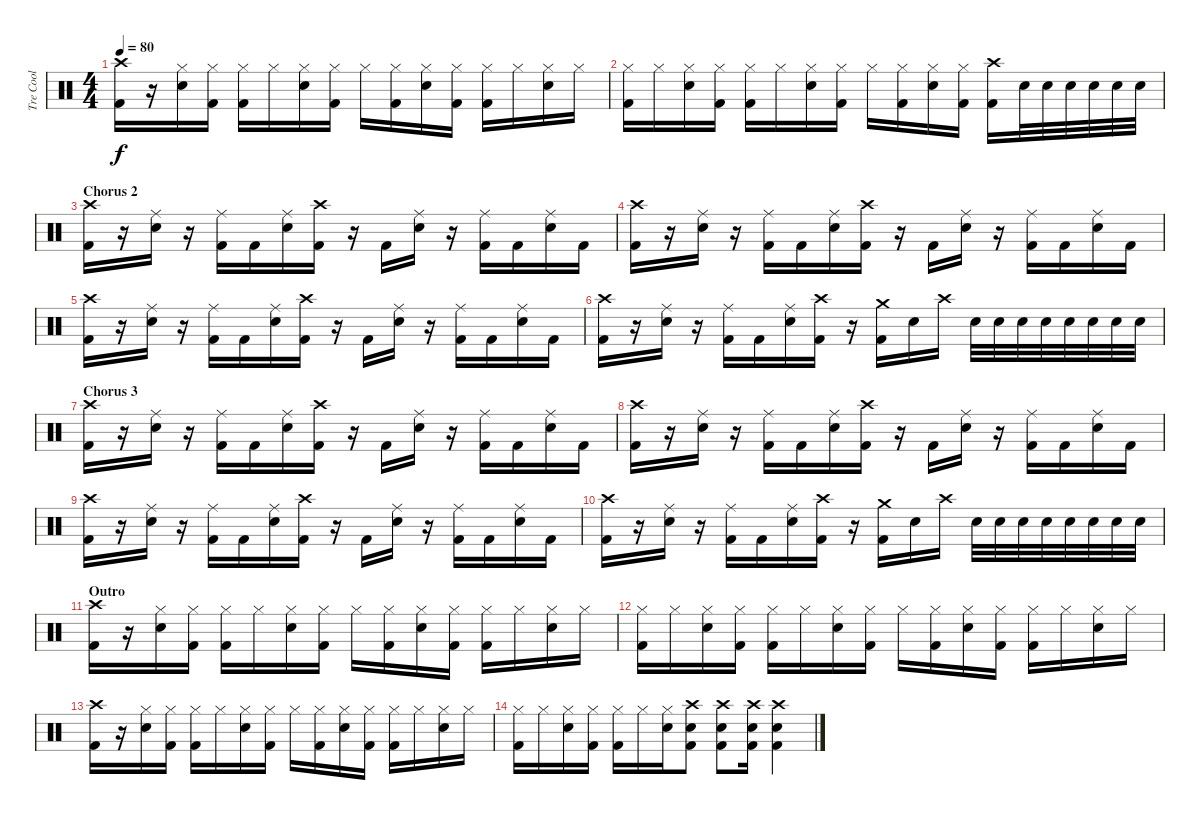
\track ("Tre Cool" "Tre Cool") {instrument percussion}
\staff {score}
\articulation defaults
\ts (4 4)
\tempo 80
\clef neutral
\ks c
("Crash high (hit)" "Kick (hit) 2").16{dy f} r.16 ("Hi-Hat (closed)" "Electric Snare (hit)").16 ("Hi-Hat (closed)" "Kick (hit) 2").16 ("Hi-Hat (closed)" "Kick (hit) 2").16 "Hi-Hat (closed)".16 ("Hi-Hat (closed)" "Electric Snare (hit)").16 ("Hi-Hat (closed)" "Kick (hit) 2").16 "Hi-Hat (closed)".16 ("Hi-Hat (closed)" "Kick (hit) 2").16 ("Hi-Hat (closed)" "Electric Snare (hit)").16 ("Hi-Hat (closed)" "Kick (hit) 2").16 ("Hi-Hat (closed)" "Kick (hit) 2").16 "Hi-Hat (closed)".16 ("Hi-Hat (closed)" "Electric Snare (hit)").16 "Hi-Hat (closed)".16 |
("Hi-Hat (closed)" "Kick (hit) 2").16 "Hi-Hat (closed)".16 ("Hi-Hat (closed)" "Electric Snare (hit)").16 ("Hi-Hat (closed)" "Kick (hit) 2").16 ("Hi-Hat (closed)" "Kick (hit) 2").16 "Hi-Hat (closed)".16 ("Hi-Hat (closed)" "Electric Snare (hit)").16 ("Hi-Hat (closed)" "Kick (hit) 2").16 "Hi-Hat (closed)".16 ("Hi-Hat (closed)" "Kick (hit) 2").16 ("Hi-Hat (closed)" "Electric Snare (hit)").16 ("Hi-Hat (closed)" "Kick (hit) 2").16 ("Crash high (hit)" "Kick (hit) 2").16 "Electric Snare (hit)".32 "Electric Snare (hit)".32 "Electric Snare (hit)".32 "Electric Snare (hit)".32 "Electric Snare (hit)".32 "Electric Snare (hit)".32 |
\section ("" "Chorus 2")
("Crash high (hit)" "Kick (hit) 2").16 r.16 ("Ride (middle)" "Electric Snare (hit)").16 r.16 ("Ride (middle)" "Kick (hit) 2").16 "Kick (hit) 2".16 ("Ride (middle)" "Electric Snare (hit)").16 ("Crash high (hit)" "Kick (hit) 2").16 r.16 "Kick (hit) 2".16 ("Ride (middle)" "Electric Snare (hit)").16 r.16 ("Ride (middle)" "Kick (hit) 2").16 "Kick (hit) 2".16 ("Ride (middle)" "Electric Snare (hit)").16 "Kick (hit) 2".16 |
("Crash high (hit)" "Kick (hit) 2").16 r.16 ("Ride (middle)" "Electric Snare (hit)").16 r.16 ("Ride (middle)" "Kick (hit) 2").16 "Kick (hit) 2".16 ("Ride (middle)" "Electric Snare (hit)").16 ("Crash high (hit)" "Kick (hit) 2").16 r.16 "Kick (hit) 2".16 ("Ride (middle)" "Electric Snare (hit)").16 r.16 ("Ride (middle)" "Kick (hit) 2").16 "Kick (hit) 2".16 ("Ride (middle)" "Electric Snare (hit)").16 "Kick (hit) 2".16 |
("Crash high (hit)" "Kick (hit) 2").16 r.16 ("Ride (middle)" "Electric Snare (hit)").16 r.16 ("Ride (middle)" "Kick (hit) 2").16 "Kick (hit) 2".16 ("Ride (middle)" "Electric Snare (hit)").16 ("Crash high (hit)" "Kick (hit) 2").16 r.16 "Kick (hit) 2".16 ("Ride (middle)" "Electric Snare (hit)").16 r.16 ("Ride (middle)" "Kick (hit) 2").16 "Kick (hit) 2".16 ("Ride (middle)" "Electric Snare (hit)").16 "Kick (hit) 2".16 |
("Crash high (hit)" "Kick (hit) 2").16 r.16 ("Ride (middle)" "Electric Snare (hit)").16 r.16 ("Ride (middle)" "Kick (hit) 2").16 "Kick (hit) 2".16 ("Ride (middle)" "Electric Snare (hit)").16 ("Crash high (hit)" "Kick (hit) 2").16 r.16 ("Crash medium (hit)" "Kick (hit) 2").16 "Electric Snare (hit)".16 "Crash high (hit)".16 "Electric Snare (hit)".32 "Electric Snare (hit)".32 "Electric Snare (hit)".32 "Electric Snare (hit)".32 "Electric Snare (hit)".32 "Electric Snare (hit)".32 "Electric Snare (hit)".32 "Electric Snare (hit)".32 |
\section ("" "Chorus 3")
("Crash high (hit)" "Kick (hit) 2").16 r.16 ("Ride (middle)" "Electric Snare (hit)").16 r.16 ("Ride (middle)" "Kick (hit) 2").16 "Kick (hit) 2".16 ("Ride (middle)" "Electric Snare (hit)").16 ("Crash high (hit)" "Kick (hit) 2").16 r.16 "Kick (hit) 2".16 ("Ride (middle)" "Electric Snare (hit)").16 r.16 ("Ride (middle)" "Kick (hit) 2").16 "Kick (hit) 2".16 ("Ride (middle)" "Electric Snare (hit)").16 "Kick (hit) 2".16 |
("Crash high (hit)" "Kick (hit) 2").16 r.16 ("Ride (middle)" "Electric Snare (hit)").16 r.16 ("Ride (middle)" "Kick (hit) 2").16 "Kick (hit) 2".16 ("Ride (middle)" "Electric Snare (hit)").16 ("Crash high (hit)" "Kick (hit) 2").16 r.16 "Kick (hit) 2".16 ("Ride (middle)" "Electric Snare (hit)").16 r.16 ("Ride (middle)" "Kick (hit) 2").16 "Kick (hit) 2".16 ("Ride (middle)" "Electric Snare (hit)").16 "Kick (hit) 2".16 |
("Crash high (hit)" "Kick (hit) 2").16 r.16 ("Ride (middle)" "Electric Snare (hit)").16 r.16 ("Ride (middle)" "Kick (hit) 2").16 "Kick (hit) 2".16 ("Ride (middle)" "Electric Snare (hit)").16 ("Crash high (hit)" "Kick (hit) 2").16 r.16 "Kick (hit) 2".16 ("Ride (middle)" "Electric Snare (hit)").16 r.16 ("Ride (middle)" "Kick (hit) 2").16 "Kick (hit) 2".16 ("Ride (middle)" "Electric Snare (hit)").16 "Kick (hit) 2".16 |
("Crash high (hit)" "Kick (hit) 2").16 r.16 ("Ride (middle)" "Electric Snare (hit)").16 r.16 ("Ride (middle)" "Kick (hit) 2").16 "Kick (hit) 2".16 ("Ride (middle)" "Electric Snare (hit)").16 ("Crash high (hit)" "Kick (hit) 2").16 r.16 ("Crash medium (hit)" "Kick (hit) 2").16 "Electric Snare (hit)".16 "Crash high (hit)".16 "Electric Snare (hit)".32 "Electric Snare (hit)".32 "Electric Snare (hit)".32 "Electric Snare (hit)".32 "Electric Snare (hit)".32 "Electric Snare (hit)".32 "Electric Snare (hit)".32 "Electric Snare (hit)".32 |
\section ("" "Outro")
("Crash high (hit)" "Kick (hit) 2").16 r.16 ("Hi-Hat (closed)" "Electric Snare (hit)").16 ("Hi-Hat (closed)" "Kick (hit) 2").16 ("Hi-Hat (closed)" "Kick (hit) 2").16 "Hi-Hat (closed)".16 ("Hi-Hat (closed)" "Electric Snare (hit)").16 ("Hi-Hat (closed)" "Kick (hit) 2").16 "Hi-Hat (closed)".16 ("Hi-Hat (closed)" "Kick (hit) 2").16 ("Hi-Hat (closed)" "Electric Snare (hit)").16 ("Hi-Hat (closed)" "Kick (hit) 2").16 ("Hi-Hat (closed)" "Kick (hit) 2").16 "Hi-Hat (closed)".16 ("Hi-Hat (closed)" "Electric Snare (hit)").16 "Hi-Hat (closed)".16 |
("Hi-Hat (closed)" "Kick (hit) 2").16 "Hi-Hat (closed)".16 ("Hi-Hat (closed)" "Electric Snare (hit)").16 ("Hi-Hat (closed)" "Kick (hit) 2").16 ("Hi-Hat (closed)" "Kick (hit) 2").16 "Hi-Hat (closed)".16 ("Hi-Hat (closed)" "Electric Snare (hit)").16 ("Hi-Hat (closed)" "Kick (hit) 2").16 "Hi-Hat (closed)".16 ("Hi-Hat (closed)" "Kick (hit) 2").16 ("Hi-Hat (closed)" "Electric Snare (hit)").16 ("Hi-Hat (closed)" "Kick (hit) 2").16 ("Hi-Hat (closed)" "Kick (hit) 2").16 "Hi-Hat (closed)".16 ("Hi-Hat (closed)" "Electric Snare (hit)").16 "Hi-Hat (closed)".16 |
("Crash high (hit)" "Kick (hit) 2").16 r.16 ("Hi-Hat (closed)" "Electric Snare (hit)").16 ("Hi-Hat (closed)" "Kick (hit) 2").16 ("Hi-Hat (closed)" "Kick (hit) 2").16 "Hi-Hat (closed)".16 ("Hi-Hat (closed)" "Electric Snare (hit)").16 ("Hi-Hat (closed)" "Kick (hit) 2").16 "Hi-Hat (closed)".16 ("Hi-Hat (closed)" "Kick (hit) 2").16 ("Hi-Hat (closed)" "Electric Snare (hit)").16 ("Hi-Hat (closed)" "Kick (hit) 2").16 ("Hi-Hat (closed)" "Kick (hit) 2").16 "Hi-Hat (closed)".16 ("Hi-Hat (closed)" "Electric Snare (hit)").16 "Hi-Hat (closed)".16 |
("Hi-Hat (closed)" "Kick (hit) 2").16 "Hi-Hat (closed)".16 ("Hi-Hat (closed)" "Electric Snare (hit)").16 ("Hi-Hat (closed)" "Kick (hit) 2").16 ("Hi-Hat (closed)" "Kick (hit) 2").16 "Hi-Hat (closed)".16 ("Hi-Hat (closed)" "Electric Snare (hit)").16 ("Crash high (hit)" "Electric Snare (hit)" "Kick (hit) 2").8 ("Crash high (hit)" "Electric Snare (hit)" "Kick (hit) 2").8 ("Crash high (hit)" "Electric Snare (hit)" "Kick (hit) 2").16 ("Crash high (hit)" "Electric Snare (hit)" "Kick (hit) 2").4
